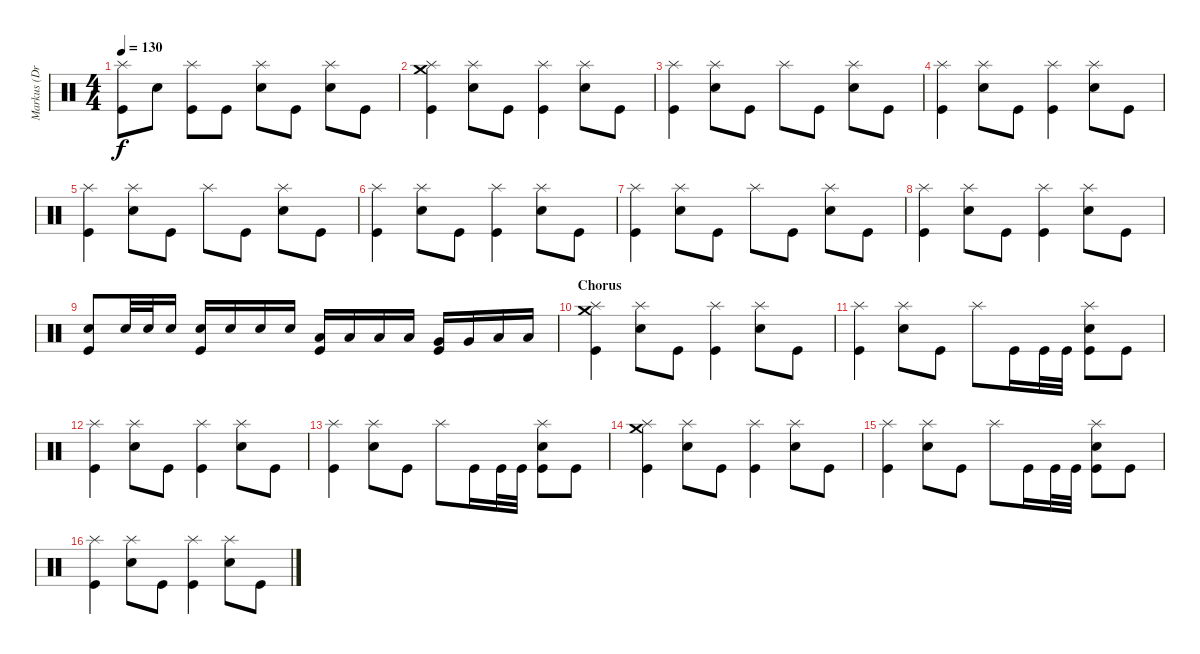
\track ("Markus (Drums)" "Markus (Dr") {instrument percussion}
\staff {score}
\articulation defaults
\ts (4 4)
\tempo 130
\clef neutral
\ks c
("Splash (hit)" "Kick (hit)").8{dy f} "Electric Snare (hit)".8 ("Splash (hit)" "Kick (hit)").8 "Kick (hit)".8 ("Splash (hit)" "Electric Snare (hit)").8 "Kick (hit)".8 ("Splash (hit)" "Electric Snare (hit)").8 "Kick (hit)".8 |
\section ("" "")
("Crash medium (hit)" "Splash (hit)" "Kick (hit)").4 ("Splash (hit)" "Electric Snare (hit)").8 "Kick (hit)".8 ("Splash (hit)" "Kick (hit)").4 ("Splash (hit)" "Electric Snare (hit)").8 "Kick (hit)".8 |
("Splash (hit)" "Kick (hit)").4 ("Splash (hit)" "Electric Snare (hit)").8 "Kick (hit)".8 "Splash (hit)".8 "Kick (hit)".8 ("Splash (hit)" "Electric Snare (hit)").8 "Kick (hit)".8 |
("Splash (hit)" "Kick (hit)").4 ("Splash (hit)" "Electric Snare (hit)").8 "Kick (hit)".8 ("Splash (hit)" "Kick (hit)").4 ("Splash (hit)" "Electric Snare (hit)").8 "Kick (hit)".8 |
("Splash (hit)" "Kick (hit)").4 ("Splash (hit)" "Electric Snare (hit)").8 "Kick (hit)".8 "Splash (hit)".8 "Kick (hit)".8 ("Splash (hit)" "Electric Snare (hit)").8 "Kick (hit)".8 |
("Splash (hit)" "Kick (hit)").4 ("Splash (hit)" "Electric Snare (hit)").8 "Kick (hit)".8 ("Splash (hit)" "Kick (hit)").4 ("Splash (hit)" "Electric Snare (hit)").8 "Kick (hit)".8 |
("Splash (hit)" "Kick (hit)").4 ("Splash (hit)" "Electric Snare (hit)").8 "Kick (hit)".8 "Splash (hit)".8 "Kick (hit)".8 ("Splash (hit)" "Electric Snare (hit)").8 "Kick (hit)".8 |
("Splash (hit)" "Kick (hit)").4 ("Splash (hit)" "Electric Snare (hit)").8 "Kick (hit)".8 ("Splash (hit)" "Kick (hit)").4 ("Splash (hit)" "Electric Snare (hit)").8 "Kick (hit)".8 |
("Electric Snare (hit)" "Kick (hit)").8 "Electric Snare (hit)".32 "Electric Snare (hit)".32 "Electric Snare (hit)".16 ("Electric Snare (hit)" "Kick (hit)").16 "Electric Snare (hit)".16 "Electric Snare (hit)".16 "Electric Snare (hit)".16 ("Low Tom (hit)" "Kick (hit)").16 "Low Tom (hit)".16 "Low Tom (hit)".16 "Low Tom (hit)".16 ("Very Low Tom (hit)" "Kick (hit)").16 "Very Low Tom (hit)".16 "Low Floor Tom (hit)".16 "Low Floor Tom (hit)".16 |
\section ("" "Chorus")
("Crash medium (hit)" "Splash (hit)" "Kick (hit)").4 ("Splash (hit)" "Electric Snare (hit)").8 "Kick (hit)".8 ("Splash (hit)" "Kick (hit)").4 ("Splash (hit)" "Electric Snare (hit)").8 "Kick (hit)".8 |
("Splash (hit)" "Kick (hit)").4 ("Splash (hit)" "Electric Snare (hit)").8 "Kick (hit)".8 "Splash (hit)".8 "Kick (hit)".16 "Kick (hit)".32 "Kick (hit)".32 ("Splash (hit)" "Electric Snare (hit)" "Kick (hit)").8 "Kick (hit)".8 |
("Splash (hit)" "Kick (hit)").4 ("Splash (hit)" "Electric Snare (hit)").8 "Kick (hit)".8 ("Splash (hit)" "Kick (hit)").4 ("Splash (hit)" "Electric Snare (hit)").8 "Kick (hit)".8 |
("Splash (hit)" "Kick (hit)").4 ("Splash (hit)" "Electric Snare (hit)").8 "Kick (hit)".8 "Splash (hit)".8 "Kick (hit)".16 "Kick (hit)".32 "Kick (hit)".32 ("Splash (hit)" "Electric Snare (hit)" "Kick (hit)").8 "Kick (hit)".8 |
\section ("" "")
("Crash medium (hit)" "Splash (hit)" "Kick (hit)").4 ("Splash (hit)" "Electric Snare (hit)").8 "Kick (hit)".8 ("Splash (hit)" "Kick (hit)").4 ("Splash (hit)" "Electric Snare (hit)").8 "Kick (hit)".8 |
("Splash (hit)" "Kick (hit)").4 ("Splash (hit)" "Electric Snare (hit)").8 "Kick (hit)".8 "Splash (hit)".8 "Kick (hit)".16 "Kick (hit)".32 "Kick (hit)".32 ("Splash (hit)" "Electric Snare (hit)" "Kick (hit)").8 "Kick (hit)".8 |
("Splash (hit)" "Kick (hit)").4 ("Splash (hit)" "Electric Snare (hit)").8 "Kick (hit)".8 ("Splash (hit)" "Kick (hit)").4 ("Splash (hit)" "Electric Snare (hit)").8 "Kick (hit)".8
